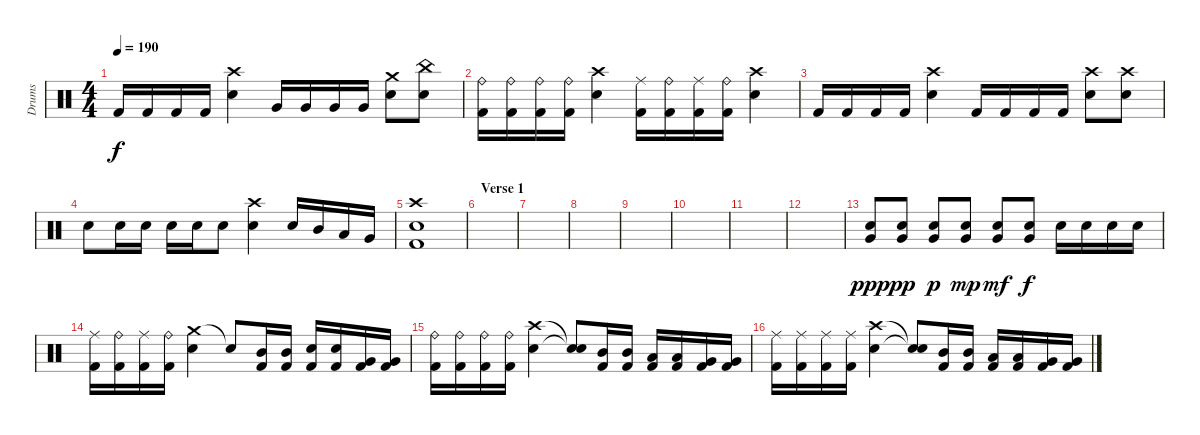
\track ("Drums" "Drums") {instrument percussion}
\staff {score}
\articulation defaults
\ts (4 4)
\tempo 190
\clef neutral
\ks c "Kick (hit) 2".16{dy f} "Kick (hit) 2".16 "Kick (hit) 2".16 "Kick (hit) 2".16
("Electric Snare (hit)" "Crash high (hit)").4 "Very Low Tom (hit)".16 "Very Low Tom (hit)".16 "Very Low Tom (hit)".16 "Very Low Tom (hit)".16 ("Electric Snare (hit)" "Crash medium (hit)").8 ("Electric Snare (hit)" "China (hit)").8 |
("Kick (hit) 2" "Ride (bell)").16 ("Kick (hit) 2" "Ride (bell)").16 ("Kick (hit) 2" "Ride (bell)").16 ("Kick (hit) 2" "Ride (bell)").16 ("Electric Snare (hit)" "Crash high (hit)").4 ("Kick (hit) 2" "Ride (middle)").16 ("Kick (hit) 2" "Ride (bell)").16 ("Kick (hit) 2" "Ride (middle)").16 ("Kick (hit) 2" "Ride (bell)").16 ("Electric Snare (hit)" "Crash high (hit)").4 |
"Kick (hit) 2".16 "Kick (hit) 2".16 "Kick (hit) 2".16 "Kick (hit) 2".16 ("Electric Snare (hit)" "Crash high (hit)").4 "Kick (hit) 2".16 "Kick (hit) 2".16 "Kick (hit) 2".16 "Kick (hit) 2".16 ("Electric Snare (hit)" "Crash high (hit)").8 ("Electric Snare (hit)" "Crash high (hit)").8 |
"Electric Snare (hit)".8 "Electric Snare (hit)".16 "Electric Snare (hit)".16 "Electric Snare (hit)".16 "Electric Snare (hit)".16 "Electric Snare (hit)".8 ("Electric Snare (hit)" "Crash high (hit)").4 "Electric Snare (hit)".16 "Mid Tom (hit)".16 "Low Tom (hit)".16 "Very Low Tom (hit)".16 |
("Kick (hit) 2" "Crash high (hit)" "Electric Snare (hit)").1 |
\section ("" "Verse 1")
|
|
|
|
|
|
|
("Electric Snare (hit)" "Very Low Tom (hit)").8{dy ppp} ("Electric Snare (hit)" "Very Low Tom (hit)").8{dy pp} ("Electric Snare (hit)" "Very Low Tom (hit)").8{dy p} ("Electric Snare (hit)" "Very Low Tom (hit)").8{dy mp} ("Electric Snare (hit)" "Very Low Tom (hit)").8{dy mf} ("Electric Snare (hit)" "Very Low Tom (hit)").8{dy f} "Electric Snare (hit)".16 "Electric Snare (hit)".16 "Electric Snare (hit)".16 "Electric Snare (hit)".16 |
("Ride (middle)" "Kick (hit) 2").16 ("Ride (bell)" "Kick (hit) 2").16 ("Ride (middle)" "Kick (hit) 2").16 ("Ride (bell)" "Kick (hit) 2").16 ("Crash medium (hit)" "Electric Snare (hit)").4 "Snare (hit)"{t}.8 ("Mid Tom (hit)" "Kick (hit) 2").16 ("Mid Tom (hit)" "Kick (hit) 2").16 ("Electric Snare (hit)" "Kick (hit) 2").16 ("Electric Snare (hit)" "Kick (hit) 2").16 ("Very Low Tom (hit)" "Kick (hit) 2").16 ("Very Low Tom (hit)" "Kick (hit) 2").16 |
("Ride (bell)" "Kick (hit) 2").16 ("Ride (bell)" "Kick (hit) 2").16 ("Ride (bell)" "Kick (hit) 2").16 ("Ride (bell)" "Kick (hit) 2").16 ("Crash high (hit)" "Electric Snare (hit)").4 ("Snare (hit)"{t} "Snare (hit)"{t}).8 ("Mid Tom (hit)" "Kick (hit) 2").16 ("Mid Tom (hit)" "Kick (hit) 2").16 ("Low Tom (hit)" "Kick (hit) 2").16 ("Low Tom (hit)" "Kick (hit) 2").16 ("Very Low Tom (hit)" "Kick (hit) 2").16 ("Very Low Tom (hit)" "Kick (hit) 2").16 |
("Ride (middle)" "Kick (hit) 2").16 ("Ride (middle)" "Kick (hit) 2").16 ("Ride (middle)" "Kick (hit) 2").16 ("Ride (middle)" "Kick (hit) 2").16 ("Crash high (hit)" "Electric Snare (hit)").4 ("Snare (hit)"{t} "Snare (hit)"{t}).8 ("Mid Tom (hit)" "Kick (hit) 2").16 ("Mid Tom (hit)" "Kick (hit) 2").16 ("Low Tom (hit)" "Kick (hit) 2").16 ("Low Tom (hit)" "Kick (hit) 2").16 ("Very Low Tom (hit)" "Kick (hit) 2").16 ("Very Low Tom (hit)" "Kick (hit) 2").16
